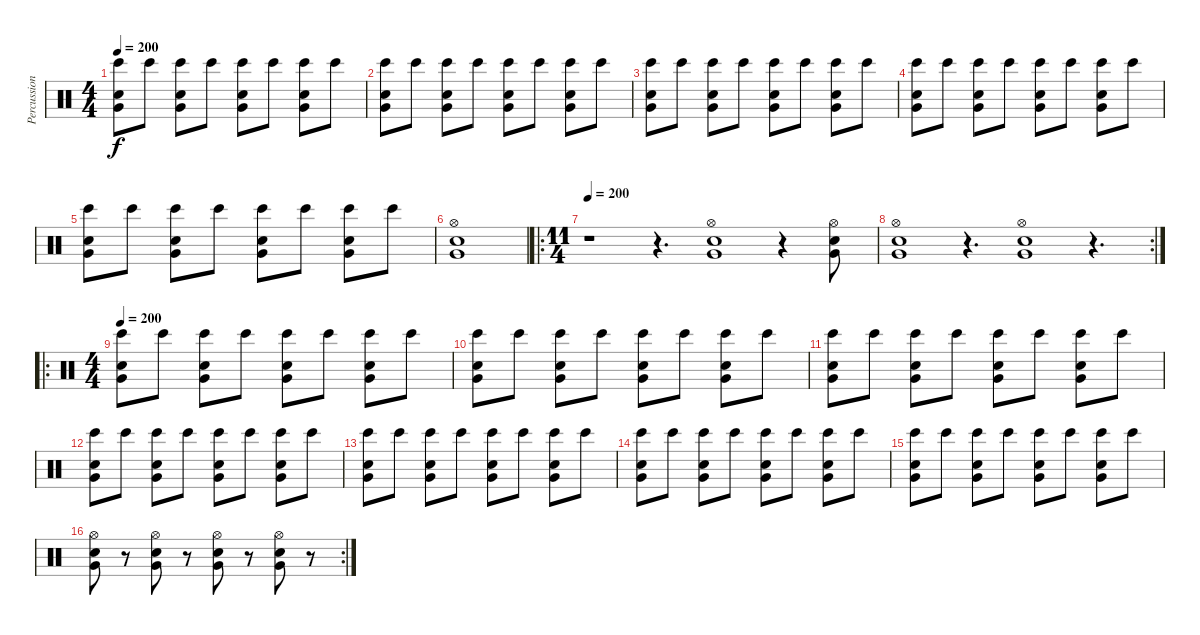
\track ("Percussion" "Percussion") {instrument percussion}
\staff {score}
\articulation defaults
\ts (4 4)
\tempo 200
\clef neutral
\ks c
("Very Low Tom (hit)" "Bongo High (hit)" "Snare (hit) 2").8{dy f} "Bongo High (hit)".8 ("Very Low Tom (hit)" "Bongo High (hit)" "Snare (hit) 2").8 "Bongo High (hit)".8 ("Very Low Tom (hit)" "Bongo High (hit)" "Snare (hit) 2").8 "Bongo High (hit)".8 ("Very Low Tom (hit)" "Bongo High (hit)" "Snare (hit) 2").8 "Bongo High (hit)".8 |
("Very Low Tom (hit)" "Bongo High (hit)" "Snare (hit) 2").8 "Bongo High (hit)".8 ("Very Low Tom (hit)" "Bongo High (hit)" "Snare (hit) 2").8 "Bongo High (hit)".8 ("Very Low Tom (hit)" "Bongo High (hit)" "Snare (hit) 2").8 "Bongo High (hit)".8 ("Very Low Tom (hit)" "Bongo High (hit)" "Snare (hit) 2").8 "Bongo High (hit)".8 |
("Very Low Tom (hit)" "Bongo High (hit)" "Snare (hit) 2").8 "Bongo High (hit)".8 ("Very Low Tom (hit)" "Bongo High (hit)" "Snare (hit) 2").8 "Bongo High (hit)".8 ("Very Low Tom (hit)" "Bongo High (hit)" "Snare (hit) 2").8 "Bongo High (hit)".8 ("Very Low Tom (hit)" "Bongo High (hit)" "Snare (hit) 2").8 "Bongo High (hit)".8 |
("Very Low Tom (hit)" "Bongo High (hit)" "Snare (hit) 2").8 "Bongo High (hit)".8 ("Very Low Tom (hit)" "Bongo High (hit)" "Snare (hit) 2").8 "Bongo High (hit)".8 ("Very Low Tom (hit)" "Bongo High (hit)" "Snare (hit) 2").8 "Bongo High (hit)".8 ("Very Low Tom (hit)" "Bongo High (hit)" "Snare (hit) 2").8 "Bongo High (hit)".8 |
("Very Low Tom (hit)" "Bongo High (hit)" "Snare (hit) 2").8 "Bongo High (hit)".8 ("Very Low Tom (hit)" "Bongo High (hit)" "Snare (hit) 2").8 "Bongo High (hit)".8 ("Very Low Tom (hit)" "Bongo High (hit)" "Snare (hit) 2").8 "Bongo High (hit)".8 ("Very Low Tom (hit)" "Bongo High (hit)" "Snare (hit) 2").8 "Bongo High (hit)".8 |
("Hi-Hat (open)" "Very Low Tom (hit)" "Snare (hit) 2").1 |
\ro
\ts (11 4)
\tempo 200
r.1 r.4{d} ("Very Low Tom (hit)" "Hi-Hat (open)" "Snare (hit) 2").1 r.4 ("Very Low Tom (hit)" "Hi-Hat (open)" "Snare (hit) 2").8 |
\rc 2
("Very Low Tom (hit)" "Hi-Hat (open)" "Snare (hit) 2").1 r.4{d} ("Very Low Tom (hit)" "Hi-Hat (open)" "Snare (hit) 2").1 r.4{d} |
\ro
\ts (4 4)
\tempo 200
("Very Low Tom (hit)" "Bongo High (hit)" "Snare (hit) 2").8 "Bongo High (hit)".8 ("Very Low Tom (hit)" "Bongo High (hit)" "Snare (hit) 2").8 "Bongo High (hit)".8 ("Very Low Tom (hit)" "Bongo High (hit)" "Snare (hit) 2").8 "Bongo High (hit)".8 ("Very Low Tom (hit)" "Bongo High (hit)" "Snare (hit) 2").8 "Bongo High (hit)".8 |
("Very Low Tom (hit)" "Bongo High (hit)" "Snare (hit) 2").8 "Bongo High (hit)".8 ("Very Low Tom (hit)" "Bongo High (hit)" "Snare (hit) 2").8 "Bongo High (hit)".8 ("Very Low Tom (hit)" "Bongo High (hit)" "Snare (hit) 2").8 "Bongo High (hit)".8 ("Very Low Tom (hit)" "Bongo High (hit)" "Snare (hit) 2").8 "Bongo High (hit)".8 |
("Very Low Tom (hit)" "Bongo High (hit)" "Snare (hit) 2").8 "Bongo High (hit)".8 ("Very Low Tom (hit)" "Bongo High (hit)" "Snare (hit) 2").8 "Bongo High (hit)".8 ("Very Low Tom (hit)" "Bongo High (hit)" "Snare (hit) 2").8 "Bongo High (hit)".8 ("Very Low Tom (hit)" "Bongo High (hit)" "Snare (hit) 2").8 "Bongo High (hit)".8 |
("Very Low Tom (hit)" "Bongo High (hit)" "Snare (hit) 2").8 "Bongo High (hit)".8 ("Very Low Tom (hit)" "Bongo High (hit)" "Snare (hit) 2").8 "Bongo High (hit)".8 ("Very Low Tom (hit)" "Bongo High (hit)" "Snare (hit) 2").8 "Bongo High (hit)".8 ("Very Low Tom (hit)" "Bongo High (hit)" "Snare (hit) 2").8 "Bongo High (hit)".8 |
("Very Low Tom (hit)" "Bongo High (hit)" "Snare (hit) 2").8 "Bongo High (hit)".8 ("Very Low Tom (hit)" "Bongo High (hit)" "Snare (hit) 2").8 "Bongo High (hit)".8 ("Very Low Tom (hit)" "Bongo High (hit)" "Snare (hit) 2").8 "Bongo High (hit)".8 ("Very Low Tom (hit)" "Bongo High (hit)" "Snare (hit) 2").8 "Bongo High (hit)".8 |
("Very Low Tom (hit)" "Bongo High (hit)" "Snare (hit) 2").8 "Bongo High (hit)".8 ("Very Low Tom (hit)" "Bongo High (hit)" "Snare (hit) 2").8 "Bongo High (hit)".8 ("Very Low Tom (hit)" "Bongo High (hit)" "Snare (hit) 2").8 "Bongo High (hit)".8 ("Very Low Tom (hit)" "Bongo High (hit)" "Snare (hit) 2").8 "Bongo High (hit)".8 |
("Very Low Tom (hit)" "Bongo High (hit)" "Snare (hit) 2").8 "Bongo High (hit)".8 ("Very Low Tom (hit)" "Bongo High (hit)" "Snare (hit) 2").8 "Bongo High (hit)".8 ("Very Low Tom (hit)" "Bongo High (hit)" "Snare (hit) 2").8 "Bongo High (hit)".8 ("Very Low Tom (hit)" "Bongo High (hit)" "Snare (hit) 2").8 "Bongo High (hit)".8 |
\rc 2
("Very Low Tom (hit)" "Hi-Hat (open)" "Snare (hit) 2").8 r.8 ("Very Low Tom (hit)" "Hi-Hat (open)" "Snare (hit) 2").8 r.8 ("Very Low Tom (hit)" "Hi-Hat (open)" "Snare (hit) 2").8 r.8 ("Very Low Tom (hit)" "Hi-Hat (open)" "Snare (hit) 2").8 r.8
